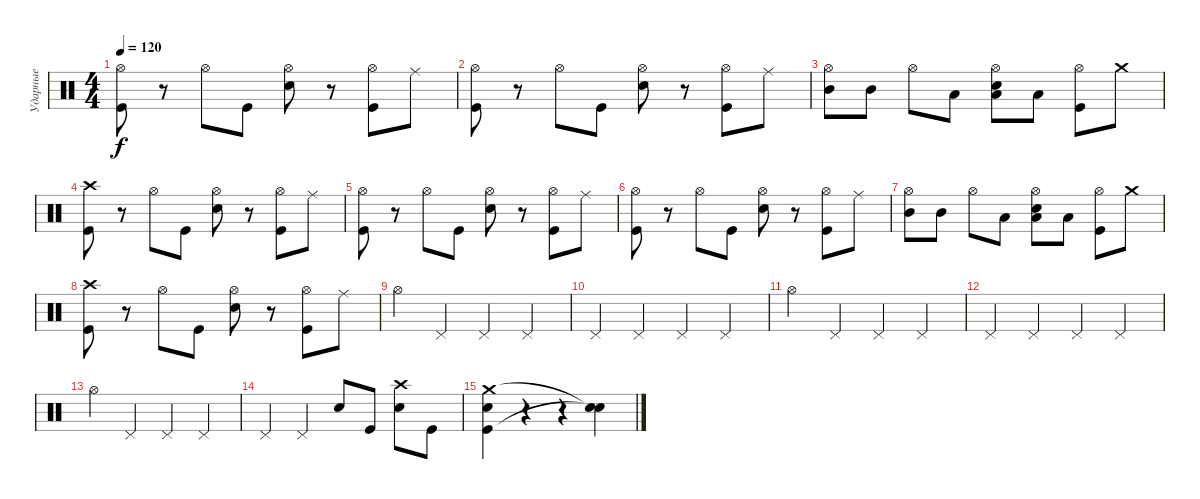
\track ("Ударные" "Ударные") {instrument percussion}
\staff {score}
\articulation defaults
\ts (4 4)
\section ("" " ")
\tempo 120
\clef neutral
\ks c
("Kick (hit)" "Hi-Hat (open)").8{dy f} r.8 "Hi-Hat (open)".8 "Kick (hit)".8 ("Electric Snare (hit)" "Hi-Hat (open)").8 r.8 ("Kick (hit)" "Hi-Hat (open)").8 "Ride (middle)".8 |
("Kick (hit)" "Hi-Hat (open)").8 r.8 "Hi-Hat (open)".8 "Kick (hit)".8 ("Electric Snare (hit)" "Hi-Hat (open)").8 r.8 ("Kick (hit)" "Hi-Hat (open)").8 "Ride (middle)".8 |
("Mid Tom (hit)" "Hi-Hat (open)").8 "Mid Tom (hit)".8 "Hi-Hat (open)".8 "Low Tom (hit)".8 ("Low Tom (hit)" "Electric Snare (hit)" "Hi-Hat (open)").8 "Low Tom (hit)".8 ("Kick (hit)" "Hi-Hat (open)").8 "Crash medium (hit)".8 |
("Kick (hit)" "Crash high (hit)").8 r.8 "Hi-Hat (open)".8 "Kick (hit)".8 ("Electric Snare (hit)" "Hi-Hat (open)").8 r.8 ("Kick (hit)" "Hi-Hat (open)").8 "Ride (middle)".8 |
("Kick (hit)" "Hi-Hat (open)").8 r.8 "Hi-Hat (open)".8 "Kick (hit)".8 ("Electric Snare (hit)" "Hi-Hat (open)").8 r.8 ("Kick (hit)" "Hi-Hat (open)").8 "Ride (middle)".8 |
("Kick (hit)" "Hi-Hat (open)").8 r.8 "Hi-Hat (open)".8 "Kick (hit)".8 ("Electric Snare (hit)" "Hi-Hat (open)").8 r.8 ("Kick (hit)" "Hi-Hat (open)").8 "Ride (middle)".8 |
("Mid Tom (hit)" "Hi-Hat (open)").8 "Mid Tom (hit)".8 "Hi-Hat (open)".8 "Low Tom (hit)".8 ("Low Tom (hit)" "Electric Snare (hit)" "Hi-Hat (open)").8 "Low Tom (hit)".8 ("Kick (hit)" "Hi-Hat (open)").8 "Crash medium (hit)".8 |
("Kick (hit)" "Crash high (hit)").8 r.8 "Hi-Hat (open)".8 "Kick (hit)".8 ("Electric Snare (hit)" "Hi-Hat (open)").8 r.8 ("Kick (hit)" "Hi-Hat (open)").8 "Ride (middle)".8 |
"Hi-Hat (open)".4 "Pedal Hi-Hat (hit)".4 "Pedal Hi-Hat (hit)".4 "Pedal Hi-Hat (hit)".4 |
"Pedal Hi-Hat (hit)".4 "Pedal Hi-Hat (hit)".4 "Pedal Hi-Hat (hit)".4 "Pedal Hi-Hat (hit)".4 |
"Hi-Hat (open)".4 "Pedal Hi-Hat (hit)".4 "Pedal Hi-Hat (hit)".4 "Pedal Hi-Hat (hit)".4 |
"Pedal Hi-Hat (hit)".4 "Pedal Hi-Hat (hit)".4 "Pedal Hi-Hat (hit)".4 "Pedal Hi-Hat (hit)".4 |
"Hi-Hat (open)".4 "Pedal Hi-Hat (hit)".4 "Pedal Hi-Hat (hit)".4 "Pedal Hi-Hat (hit)".4 |
"Pedal Hi-Hat (hit)".4 "Pedal Hi-Hat (hit)".4 "Electric Snare (hit)".8 "Kick (hit)".8 ("Electric Snare (hit)" "Crash high (hit)").8 "Kick (hit)".8 |
("Kick (hit)" "Crash medium (hit)" "Electric Snare (hit)").4 r.4 r.4 ("Snare (hit)"{t} "Snare (hit)"{t}).4
